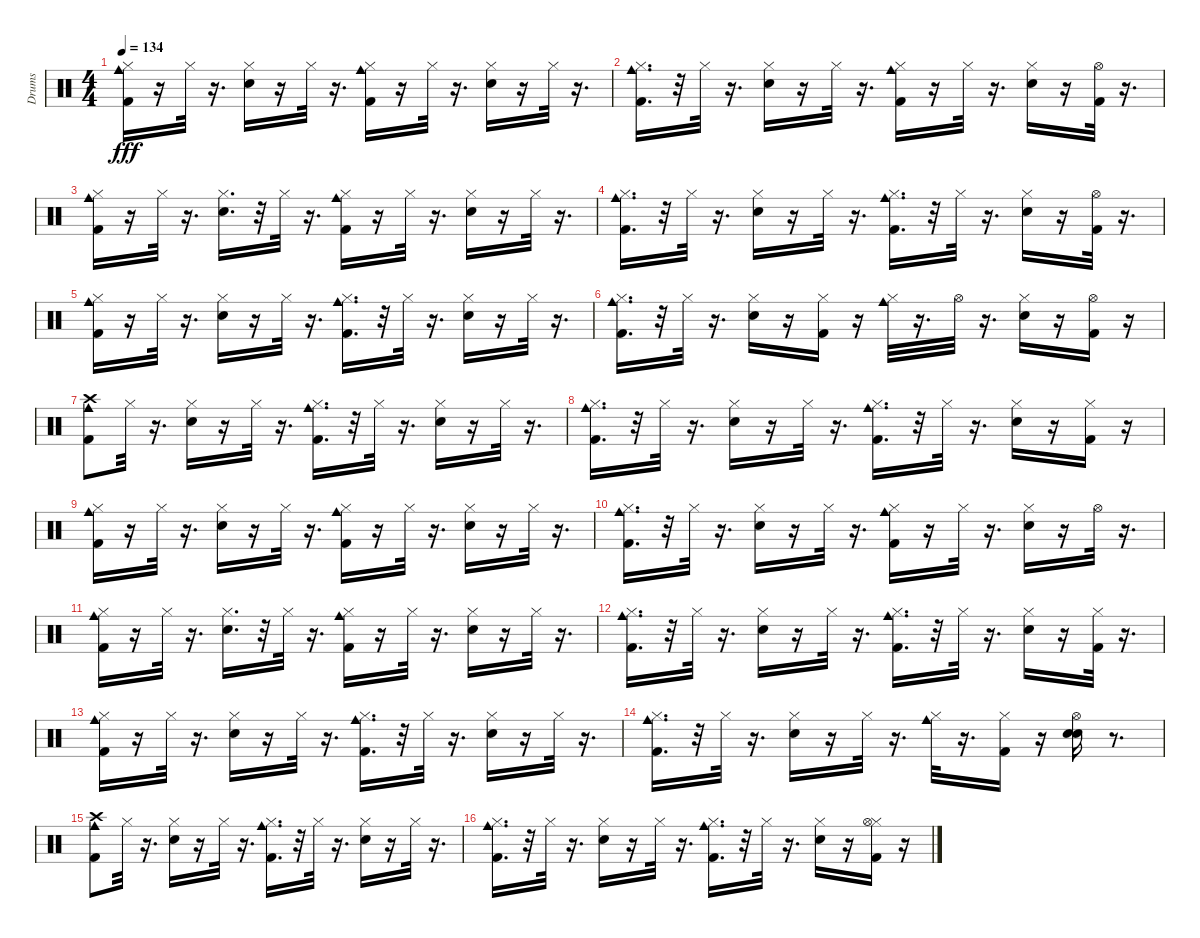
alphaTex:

\track ("Drums" "Drums") {instrument percussion}
\staff {score}
\articulation defaults
\ts (4 4)
\tempo 134
\clef neutral
\ks c
("Kick (hit) 2" "Hi-Hat (closed)" "Cowbell medium (hit)").16{dy fff} r.16 "Hi-Hat (closed)".32 r.16{d} ("Snare (hit) 2" "Hi-Hat (closed)").16 r.16 "Hi-Hat (closed)".32 r.16{d} ("Kick (hit) 2" "Hi-Hat (closed)" "Cowbell medium (hit)").16 r.16 "Hi-Hat (closed)".32 r.16{d} ("Snare (hit) 2" "Hi-Hat (closed)").16 r.16 "Hi-Hat (closed)".32 r.16{d} |
("Kick (hit) 2" "Hi-Hat (closed)" "Cowbell medium (hit)").16{d} r.32 "Hi-Hat (closed)".32 r.16{d} ("Snare (hit) 2" "Hi-Hat (closed)").16 r.16 "Hi-Hat (closed)".32 r.16{d} ("Kick (hit) 2" "Hi-Hat (closed)" "Cowbell medium (hit)").16 r.16 "Hi-Hat (closed)".32 r.16{d} ("Snare (hit) 2" "Hi-Hat (closed)").16 r.16 ("Kick (hit) 2" "Hi-Hat (open)").32 r.16{d} |
("Kick (hit) 2" "Hi-Hat (closed)" "Cowbell medium (hit)").16 r.16 "Hi-Hat (closed)".32 r.16{d} ("Snare (hit) 2" "Hi-Hat (closed)").16{d} r.32 "Hi-Hat (closed)".32 r.16{d} ("Kick (hit) 2" "Hi-Hat (closed)" "Cowbell medium (hit)").16 r.16 "Hi-Hat (closed)".32 r.16{d} ("Snare (hit) 2" "Hi-Hat (closed)").16 r.16 "Hi-Hat (closed)".32 r.16{d} |
("Kick (hit) 2" "Hi-Hat (closed)" "Cowbell medium (hit)").16{d} r.32 "Hi-Hat (closed)".32 r.16{d} ("Snare (hit) 2" "Hi-Hat (closed)").16 r.16 "Hi-Hat (closed)".32 r.16{d} ("Kick (hit) 2" "Hi-Hat (closed)" "Cowbell medium (hit)").16{d} r.32 "Hi-Hat (closed)".32 r.16{d} ("Snare (hit) 2" "Hi-Hat (closed)").16 r.16 ("Kick (hit) 2" "Hi-Hat (open)").32 r.16{d} |
("Kick (hit) 2" "Hi-Hat (closed)" "Cowbell medium (hit)").16 r.16 "Hi-Hat (closed)".32 r.16{d} ("Snare (hit) 2" "Hi-Hat (closed)").16 r.16 "Hi-Hat (closed)".32 r.16{d} ("Kick (hit) 2" "Hi-Hat (closed)" "Cowbell medium (hit)").16{d} r.32 "Hi-Hat (closed)".32 r.16{d} ("Snare (hit) 2" "Hi-Hat (closed)").16 r.16 "Hi-Hat (closed)".32 r.16{d} |
("Kick (hit) 2" "Hi-Hat (closed)" "Cowbell medium (hit)").16{d} r.32 "Hi-Hat (closed)".32 r.16{d} ("Snare (hit) 2" "Hi-Hat (closed)").16 r.16 ("Kick (hit) 2" "Hi-Hat (closed)").16 r.16 ("Hi-Hat (closed)" "Cowbell medium (hit)").32 r.16{d} "Hi-Hat (open)".32 r.16{d} ("Snare (hit) 2" "Hi-Hat (closed)").16 r.16 ("Kick (hit) 2" "Hi-Hat (open)").16 r.16 |
("Kick (hit) 2" "Crash high (hit)" "Cowbell medium (hit)").8 "Hi-Hat (closed)".32 r.16{d} ("Snare (hit) 2" "Hi-Hat (closed)").16 r.16 "Hi-Hat (closed)".32 r.16{d} ("Kick (hit) 2" "Hi-Hat (closed)" "Cowbell medium (hit)").16{d} r.32 "Hi-Hat (closed)".32 r.16{d} ("Snare (hit) 2" "Hi-Hat (closed)").16 r.16 "Hi-Hat (closed)".32 r.16{d} |
("Kick (hit) 2" "Hi-Hat (closed)" "Cowbell medium (hit)").16{d} r.32 "Hi-Hat (closed)".32 r.16{d} ("Snare (hit) 2" "Hi-Hat (closed)").16 r.16 "Hi-Hat (closed)".32 r.16{d} ("Kick (hit) 2" "Hi-Hat (closed)" "Cowbell medium (hit)").16{d} r.32 "Hi-Hat (closed)".32 r.16{d} ("Snare (hit) 2" "Hi-Hat (closed)").16 r.16 ("Kick (hit) 2" "Hi-Hat (closed)").16 r.16 |
("Kick (hit) 2" "Hi-Hat (closed)" "Cowbell medium (hit)").16 r.16 "Hi-Hat (closed)".32 r.16{d} ("Snare (hit) 2" "Hi-Hat (closed)").16 r.16 "Hi-Hat (closed)".32 r.16{d} ("Kick (hit) 2" "Hi-Hat (closed)" "Cowbell medium (hit)").16 r.16 "Hi-Hat (closed)".32 r.16{d} ("Snare (hit) 2" "Hi-Hat (closed)").16 r.16 "Hi-Hat (closed)".32 r.16{d} |
("Kick (hit) 2" "Hi-Hat (closed)" "Cowbell medium (hit)").16{d} r.32 "Hi-Hat (closed)".32 r.16{d} ("Snare (hit) 2" "Hi-Hat (closed)").16 r.16 "Hi-Hat (closed)".32 r.16{d} ("Kick (hit) 2" "Hi-Hat (closed)" "Cowbell medium (hit)").16 r.16 "Hi-Hat (closed)".32 r.16{d} ("Snare (hit) 2" "Hi-Hat (closed)").16 r.16 "Hi-Hat (open)".32 r.16{d} |
("Kick (hit) 2" "Hi-Hat (closed)" "Cowbell medium (hit)").16 r.16 "Hi-Hat (closed)".32 r.16{d} ("Snare (hit) 2" "Hi-Hat (closed)").16{d} r.32 "Hi-Hat (closed)".32 r.16{d} ("Kick (hit) 2" "Hi-Hat (closed)" "Cowbell medium (hit)").16 r.16 "Hi-Hat (closed)".32 r.16{d} ("Snare (hit) 2" "Hi-Hat (closed)").16 r.16 "Hi-Hat (closed)".32 r.16{d} |
("Kick (hit) 2" "Hi-Hat (closed)" "Cowbell medium (hit)").16{d} r.32 "Hi-Hat (closed)".32 r.16{d} ("Snare (hit) 2" "Hi-Hat (closed)").16 r.16 "Hi-Hat (closed)".32 r.16{d} ("Kick (hit) 2" "Hi-Hat (closed)" "Cowbell medium (hit)").16{d} r.32 "Hi-Hat (closed)".32 r.16{d} ("Snare (hit) 2" "Hi-Hat (closed)").16 r.16 ("Kick (hit) 2" "Hi-Hat (closed)").32 r.16{d} |
("Kick (hit) 2" "Hi-Hat (closed)" "Cowbell medium (hit)").16 r.16 "Hi-Hat (closed)".32 r.16{d} ("Snare (hit) 2" "Hi-Hat (closed)").16 r.16 "Hi-Hat (closed)".32 r.16{d} ("Kick (hit) 2" "Hi-Hat (closed)" "Cowbell medium (hit)").16{d} r.32 "Hi-Hat (closed)".32 r.16{d} ("Snare (hit) 2" "Hi-Hat (closed)").16 r.16 "Hi-Hat (closed)".32 r.16{d} |
("Kick (hit) 2" "Hi-Hat (closed)" "Cowbell medium (hit)").16{d} r.32 "Hi-Hat (closed)".32 r.16{d} ("Snare (hit) 2" "Hi-Hat (closed)").16 r.16 "Hi-Hat (closed)".32 r.16{d} ("Hi-Hat (closed)" "Cowbell medium (hit)").32 r.16{d} ("Kick (hit) 2" "Hi-Hat (closed)").16 r.16 ("Snare (hit) 2" "Snare (hit) 2" "Hi-Hat (open)").16 r.8{d} |
("Kick (hit) 2" "Crash high (hit)" "Cowbell medium (hit)").8 "Hi-Hat (closed)".32 r.16{d} ("Snare (hit) 2" "Hi-Hat (closed)").16 r.16 "Hi-Hat (closed)".32 r.16{d} ("Kick (hit) 2" "Hi-Hat (closed)" "Cowbell medium (hit)").16{d} r.32 "Hi-Hat (closed)".32 r.16{d} ("Snare (hit) 2" "Hi-Hat (closed)").16 r.16 "Hi-Hat (closed)".32 r.16{d} |
("Kick (hit) 2" "Hi-Hat (closed)" "Cowbell medium (hit)").16{d} r.32 "Hi-Hat (closed)".32 r.16{d} ("Snare (hit) 2" "Hi-Hat (closed)").16 r.16 "Hi-Hat (closed)".32 r.16{d} ("Kick (hit) 2" "Hi-Hat (closed)" "Cowbell medium (hit)").16{d} r.32 "Hi-Hat (closed)".32 r.16{d} ("Snare (hit) 2" "Hi-Hat (closed)").16 r.16 ("Kick (hit) 2" "Hi-Hat (closed)" "Hi-Hat (open)").16 r.16
